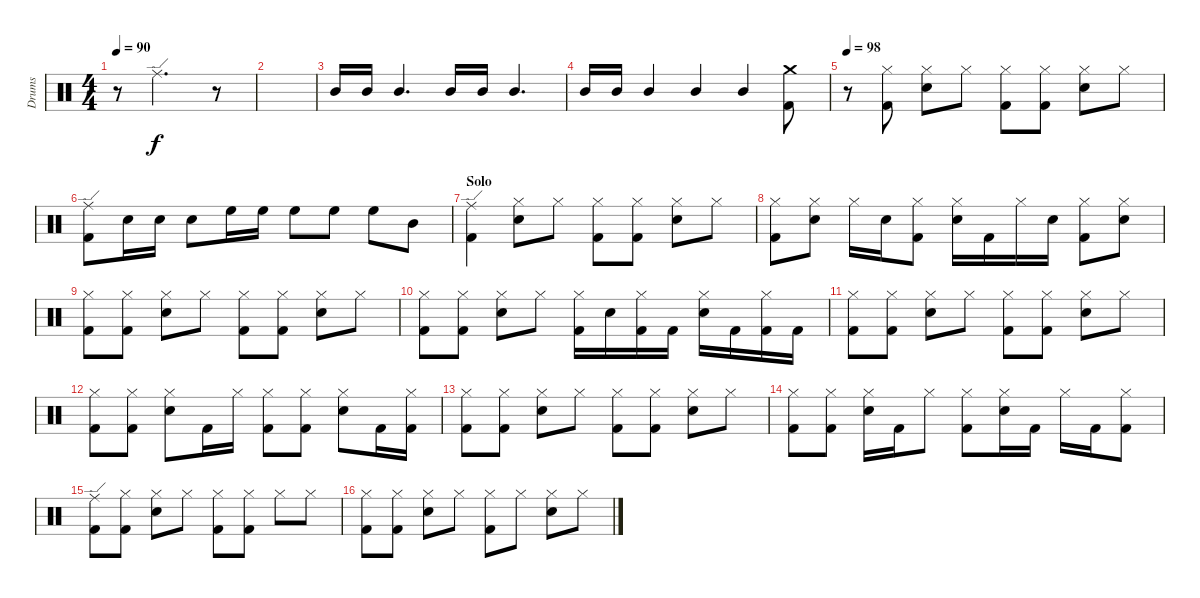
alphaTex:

\defaultSystemsLayout 4
\bracketExtendMode groupsimilarinstruments
\otherSystemsTrackNameOrientation horizontal
\track ("Drumkit (Bonham)" "Drums") {instrument percussion}
\staff {score}
\articulation defaults
\ts (4 4)
\tempo 90
\clef neutral
\scale
0.333333
\ks c
r.8{dy f beam Down} "Ride (edge)".2{d beam Down} r.8{beam Down} |
\scale
0.333333 |
\scale
0.333333 "Mid Tom (hit)".16{beam Up} "Mid Tom (hit)".16{beam Up} "Mid Tom (hit)".4{d beam Up} "Mid Tom (hit)".16{beam Up} "Mid Tom (hit)".16{beam Up} "Mid Tom (hit)".4{d beam Up} |
\scale
0.333333 "Mid Tom (hit)".16{beam Up} "Mid Tom (hit)".16{beam Up} "Mid Tom (hit)".4{beam Up} "Mid Tom (hit)".4{beam Up} "Mid Tom (hit)".4{beam Up} ("Kick (hit) 2" "Crash medium (hit)").8{beam Down} |
\tempo 98
\scale
0.333333 r.8{beam Down} ("Hi-Hat (closed)" "Kick (hit) 2").8{beam Down} ("Hi-Hat (closed)" "Snare (hit) 2").8{beam Down} "Hi-Hat (closed)".8{beam Down} ("Hi-Hat (closed)" "Kick (hit) 2").8{beam Down} ("Hi-Hat (closed)" "Kick (hit) 2").8{beam Down} ("Hi-Hat (closed)" "Snare (hit) 2").8{beam Down} "Hi-Hat (closed)".8{beam Down} |
\scale
0.333333 ("Ride (edge)" "Kick (hit) 2").8{beam Down} "Snare (hit) 2".16{beam Down} "Snare (hit) 2".16{beam Down} "Snare (hit) 2".8{beam Down} "High Floor Tom (hit)".16{beam Down} "High Floor Tom (hit)".16{beam Down} "High Floor Tom (hit)".8{beam Down} "High Floor Tom (hit)".8{beam Down} "High Floor Tom (hit)".8{beam Down} "Mid Tom (hit)".8{beam Down} |
\section ("" "Solo")
\scale
0.333333 ("Ride (edge)" "Kick (hit) 2").4{beam Down} ("Hi-Hat (closed)" "Snare (hit) 2").8{beam Down} "Hi-Hat (closed)".8{beam Down} ("Hi-Hat (closed)" "Kick (hit) 2").8{beam Down} ("Hi-Hat (closed)" "Kick (hit) 2").8{beam Down} ("Hi-Hat (closed)" "Snare (hit) 2").8{beam Down} "Hi-Hat (closed)".8{beam Down} |
\scale
0.333333 ("Hi-Hat (closed)" "Kick (hit) 2").8{beam Down} ("Hi-Hat (closed)" "Snare (hit) 2").8{beam Down} "Hi-Hat (closed)".16{beam Down} "Snare (hit) 2".16{beam Down} ("Hi-Hat (closed)" "Kick (hit) 2").8{beam Down} ("Hi-Hat (closed)" "Snare (hit) 2").16{beam Down} "Kick (hit) 2".16{beam Down} "Hi-Hat (closed)".16{beam Down} "Snare (hit) 2".16{beam Down} ("Hi-Hat (closed)" "Kick (hit) 2").8{beam Down} ("Hi-Hat (closed)" "Snare (hit) 2").8{beam Down} |
\scale
0.333333 ("Hi-Hat (closed)" "Kick (hit) 2").8{beam Down} ("Hi-Hat (closed)" "Kick (hit) 2").8{beam Down} ("Hi-Hat (closed)" "Snare (hit) 2").8{beam Down} "Hi-Hat (closed)".8{beam Down} ("Hi-Hat (closed)" "Kick (hit) 2").8{beam Down} ("Hi-Hat (closed)" "Kick (hit) 2").8{beam Down} ("Hi-Hat (closed)" "Snare (hit) 2").8{beam Down} "Hi-Hat (closed)".8{beam Down} |
\scale
0.333333 ("Hi-Hat (closed)" "Kick (hit) 2").8{beam Down} ("Hi-Hat (closed)" "Kick (hit) 2").8{beam Down} ("Hi-Hat (closed)" "Snare (hit) 2").8{beam Down} "Hi-Hat (closed)".8{beam Down} ("Hi-Hat (closed)" "Kick (hit) 2").16{beam Down} "Snare (hit) 2".16{beam Down} ("Hi-Hat (closed)" "Kick (hit) 2").16{beam Down} "Kick (hit) 2".16{beam Down} ("Hi-Hat (closed)" "Snare (hit) 2").16{beam Down} "Kick (hit) 2".16{beam Down} ("Hi-Hat (closed)" "Kick (hit) 2").16{beam Down} "Kick (hit) 2".16{beam Down} |
\scale
0.333333 ("Hi-Hat (closed)" "Kick (hit) 2").8{beam Down} ("Hi-Hat (closed)" "Kick (hit) 2").8{beam Down} ("Hi-Hat (closed)" "Snare (hit) 2").8{beam Down} "Hi-Hat (closed)".8{beam Down} ("Hi-Hat (closed)" "Kick (hit) 2").8{beam Down} ("Hi-Hat (closed)" "Kick (hit) 2").8{beam Down} ("Hi-Hat (closed)" "Snare (hit) 2").8{beam Down} "Hi-Hat (closed)".8{beam Down} |
\scale
0.333333 ("Hi-Hat (closed)" "Kick (hit) 2").8{beam Down} ("Hi-Hat (closed)" "Kick (hit) 2").8{beam Down} ("Hi-Hat (closed)" "Snare (hit) 2").8{beam Down} "Kick (hit) 2".16{beam Down} "Hi-Hat (closed)".16{beam Down} ("Hi-Hat (closed)" "Kick (hit) 2").8{beam Down} ("Hi-Hat (closed)" "Kick (hit) 2").8{beam Down} ("Hi-Hat (closed)" "Snare (hit) 2").8{beam Down} "Kick (hit) 2".16{beam Down} ("Hi-Hat (closed)" "Kick (hit) 2").16{beam Down} |
\scale
0.333333 ("Hi-Hat (closed)" "Kick (hit) 2").8{beam Down} ("Hi-Hat (closed)" "Kick (hit) 2").8{beam Down} ("Hi-Hat (closed)" "Snare (hit) 2").8{beam Down} "Hi-Hat (closed)".8{beam Down} ("Hi-Hat (closed)" "Kick (hit) 2").8{beam Down} ("Hi-Hat (closed)" "Kick (hit) 2").8{beam Down} ("Hi-Hat (closed)" "Snare (hit) 2").8{beam Down} "Hi-Hat (closed)".8{beam Down} |
\scale
0.333333 ("Hi-Hat (closed)" "Kick (hit) 2").8{beam Down} ("Hi-Hat (closed)" "Kick (hit) 2").8{beam Down} ("Hi-Hat (closed)" "Snare (hit) 2").16{beam Down} "Kick (hit) 2".16{beam Down} "Hi-Hat (closed)".8{beam Down} ("Hi-Hat (closed)" "Kick (hit) 2").8{beam Down} ("Hi-Hat (closed)" "Snare (hit) 2").16{beam Down} "Kick (hit) 2".16{beam Down} "Hi-Hat (closed)".16{beam Down} "Kick (hit) 2".16{beam Down} ("Hi-Hat (closed)" "Kick (hit) 2").8{beam Down} |
\scale
0.333333 ("Ride (edge)" "Kick (hit) 2").8{beam Down} ("Hi-Hat (closed)" "Kick (hit) 2").8{beam Down} ("Hi-Hat (closed)" "Snare (hit) 2").8{beam Down} "Hi-Hat (closed)".8{beam Down} ("Hi-Hat (closed)" "Kick (hit) 2").8{beam Down} ("Hi-Hat (closed)" "Kick (hit) 2").8{beam Down} "Hi-Hat (closed)".8{beam Down} "Hi-Hat (closed)".8{beam Down} |
\scale
0.333333 ("Hi-Hat (closed)" "Kick (hit) 2").8{beam Down} ("Hi-Hat (closed)" "Kick (hit) 2").8{beam Down} ("Hi-Hat (closed)" "Snare (hit) 2").8{beam Down} "Hi-Hat (closed)".8{beam Down} ("Hi-Hat (closed)" "Kick (hit) 2").8{beam Down} "Hi-Hat (closed)".8{beam Down} ("Hi-Hat (closed)" "Snare (hit) 2").8{beam Down} "Hi-Hat (closed)".8{beam Down}
